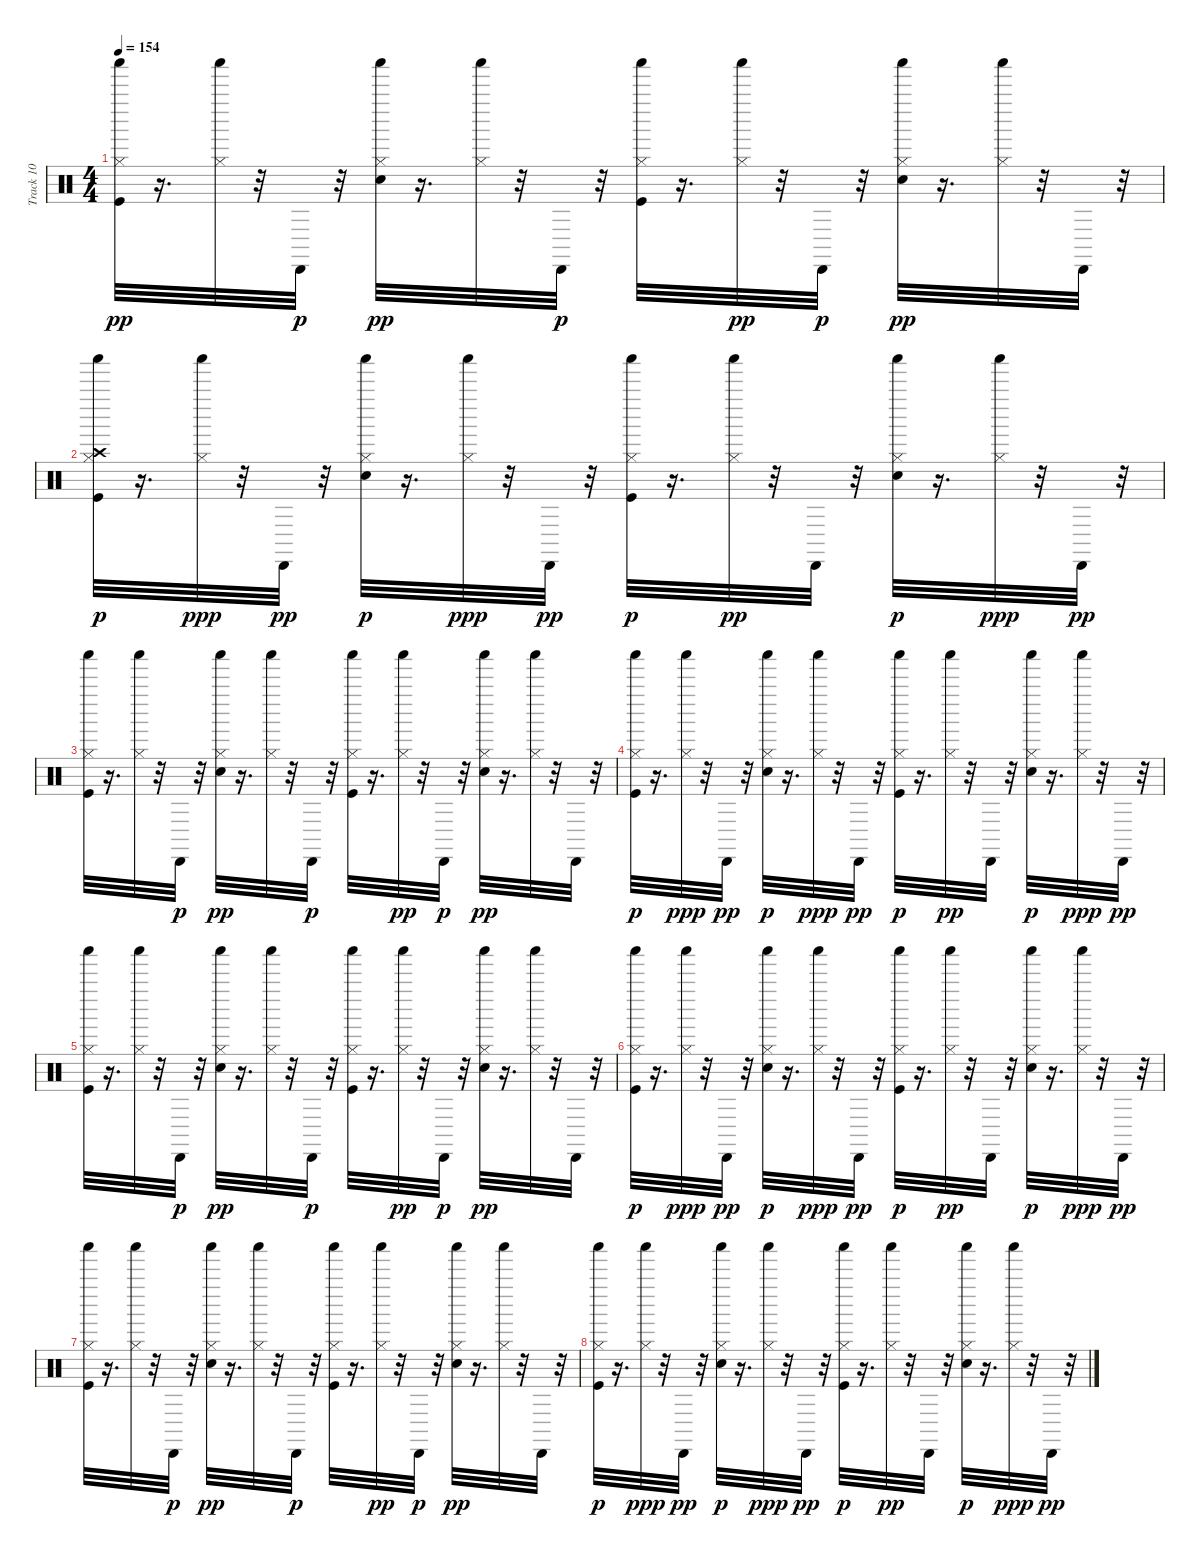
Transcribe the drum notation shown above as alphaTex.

\track ("Track 10" "Track 10") {instrument percussion}
\staff {score}
\articulation defaults
\ts (4 4)
\tempo 154
\clef neutral
\ks c
("Kick (hit)" "Hi-Hat (closed)" "Shaker (hit)").32{dy pp} r.16{d} ("Hi-Hat (closed)" "Shaker (hit)").32 r.32 "Cabasa (hit)".32{dy p} r.32 ("Electric Snare (hit)" "Hi-Hat (closed)" "Shaker (hit)").32{dy pp} r.16{d} ("Hi-Hat (closed)" "Shaker (hit)").32 r.32 "Cabasa (hit)".32{dy p} r.32 ("Kick (hit)" "Hi-Hat (closed)" "Shaker (hit)").32 r.16{d} ("Hi-Hat (closed)" "Shaker (hit)").32{dy pp} r.32 "Cabasa (hit)".32{dy p} r.32 ("Electric Snare (hit)" "Hi-Hat (closed)" "Shaker (hit)").32{dy pp} r.16{d} ("Hi-Hat (closed)" "Shaker (hit)").32 r.32 "Cabasa (hit)".32 r.32 |
("Kick (hit)" "Hi-Hat (closed)" "Crash high (hit)" "Shaker (hit)").32{dy p} r.16{d} ("Hi-Hat (closed)" "Shaker (hit)").32{dy ppp} r.32 "Cabasa (hit)".32{dy pp} r.32 ("Electric Snare (hit)" "Hi-Hat (closed)" "Shaker (hit)").32{dy p} r.16{d} ("Hi-Hat (closed)" "Shaker (hit)").32{dy ppp} r.32 "Cabasa (hit)".32{dy pp} r.32 ("Kick (hit)" "Hi-Hat (closed)" "Shaker (hit)").32{dy p} r.16{d} ("Hi-Hat (closed)" "Shaker (hit)").32{dy pp} r.32 "Cabasa (hit)".32 r.32 ("Electric Snare (hit)" "Hi-Hat (closed)" "Shaker (hit)").32{dy p} r.16{d} ("Hi-Hat (closed)" "Shaker (hit)").32{dy ppp} r.32 "Cabasa (hit)".32{dy pp} r.32 |
("Kick (hit)" "Hi-Hat (closed)" "Shaker (hit)").32 r.16{d} ("Hi-Hat (closed)" "Shaker (hit)").32 r.32 "Cabasa (hit)".32{dy p} r.32 ("Electric Snare (hit)" "Hi-Hat (closed)" "Shaker (hit)").32{dy pp} r.16{d} ("Hi-Hat (closed)" "Shaker (hit)").32 r.32 "Cabasa (hit)".32{dy p} r.32 ("Kick (hit)" "Hi-Hat (closed)" "Shaker (hit)").32 r.16{d} ("Hi-Hat (closed)" "Shaker (hit)").32{dy pp} r.32 "Cabasa (hit)".32{dy p} r.32 ("Electric Snare (hit)" "Hi-Hat (closed)" "Shaker (hit)").32{dy pp} r.16{d} ("Hi-Hat (closed)" "Shaker (hit)").32 r.32 "Cabasa (hit)".32 r.32 |
("Kick (hit)" "Hi-Hat (closed)" "Shaker (hit)").32{dy p} r.16{d} ("Hi-Hat (closed)" "Shaker (hit)").32{dy ppp} r.32 "Cabasa (hit)".32{dy pp} r.32 ("Electric Snare (hit)" "Hi-Hat (closed)" "Shaker (hit)").32{dy p} r.16{d} ("Hi-Hat (closed)" "Shaker (hit)").32{dy ppp} r.32 "Cabasa (hit)".32{dy pp} r.32 ("Kick (hit)" "Hi-Hat (closed)" "Shaker (hit)").32{dy p} r.16{d} ("Hi-Hat (closed)" "Shaker (hit)").32{dy pp} r.32 "Cabasa (hit)".32 r.32 ("Electric Snare (hit)" "Hi-Hat (closed)" "Shaker (hit)").32{dy p} r.16{d} ("Hi-Hat (closed)" "Shaker (hit)").32{dy ppp} r.32 "Cabasa (hit)".32{dy pp} r.32 |
("Kick (hit)" "Hi-Hat (closed)" "Shaker (hit)").32 r.16{d} ("Hi-Hat (closed)" "Shaker (hit)").32 r.32 "Cabasa (hit)".32{dy p} r.32 ("Electric Snare (hit)" "Hi-Hat (closed)" "Shaker (hit)").32{dy pp} r.16{d} ("Hi-Hat (closed)" "Shaker (hit)").32 r.32 "Cabasa (hit)".32{dy p} r.32 ("Kick (hit)" "Hi-Hat (closed)" "Shaker (hit)").32 r.16{d} ("Hi-Hat (closed)" "Shaker (hit)").32{dy pp} r.32 "Cabasa (hit)".32{dy p} r.32 ("Electric Snare (hit)" "Hi-Hat (closed)" "Shaker (hit)").32{dy pp} r.16{d} ("Hi-Hat (closed)" "Shaker (hit)").32 r.32 "Cabasa (hit)".32 r.32 |
("Kick (hit)" "Hi-Hat (closed)" "Shaker (hit)").32{dy p} r.16{d} ("Hi-Hat (closed)" "Shaker (hit)").32{dy ppp} r.32 "Cabasa (hit)".32{dy pp} r.32 ("Electric Snare (hit)" "Hi-Hat (closed)" "Shaker (hit)").32{dy p} r.16{d} ("Hi-Hat (closed)" "Shaker (hit)").32{dy ppp} r.32 "Cabasa (hit)".32{dy pp} r.32 ("Kick (hit)" "Hi-Hat (closed)" "Shaker (hit)").32{dy p} r.16{d} ("Hi-Hat (closed)" "Shaker (hit)").32{dy pp} r.32 "Cabasa (hit)".32 r.32 ("Electric Snare (hit)" "Hi-Hat (closed)" "Shaker (hit)").32{dy p} r.16{d} ("Hi-Hat (closed)" "Shaker (hit)").32{dy ppp} r.32 "Cabasa (hit)".32{dy pp} r.32 |
("Kick (hit)" "Hi-Hat (closed)" "Shaker (hit)").32 r.16{d} ("Hi-Hat (closed)" "Shaker (hit)").32 r.32 "Cabasa (hit)".32{dy p} r.32 ("Electric Snare (hit)" "Hi-Hat (closed)" "Shaker (hit)").32{dy pp} r.16{d} ("Hi-Hat (closed)" "Shaker (hit)").32 r.32 "Cabasa (hit)".32{dy p} r.32 ("Kick (hit)" "Hi-Hat (closed)" "Shaker (hit)").32 r.16{d} ("Hi-Hat (closed)" "Shaker (hit)").32{dy pp} r.32 "Cabasa (hit)".32{dy p} r.32 ("Electric Snare (hit)" "Hi-Hat (closed)" "Shaker (hit)").32{dy pp} r.16{d} ("Hi-Hat (closed)" "Shaker (hit)").32 r.32 "Cabasa (hit)".32 r.32 |
("Kick (hit)" "Hi-Hat (closed)" "Shaker (hit)").32{dy p} r.16{d} ("Hi-Hat (closed)" "Shaker (hit)").32{dy ppp} r.32 "Cabasa (hit)".32{dy pp} r.32 ("Electric Snare (hit)" "Hi-Hat (closed)" "Shaker (hit)").32{dy p} r.16{d} ("Hi-Hat (closed)" "Shaker (hit)").32{dy ppp} r.32 "Cabasa (hit)".32{dy pp} r.32 ("Kick (hit)" "Hi-Hat (closed)" "Shaker (hit)").32{dy p} r.16{d} ("Hi-Hat (closed)" "Shaker (hit)").32{dy pp} r.32 "Cabasa (hit)".32 r.32 ("Electric Snare (hit)" "Hi-Hat (closed)" "Shaker (hit)").32{dy p} r.16{d} ("Hi-Hat (closed)" "Shaker (hit)").32{dy ppp} r.32 "Cabasa (hit)".32{dy pp} r.32
